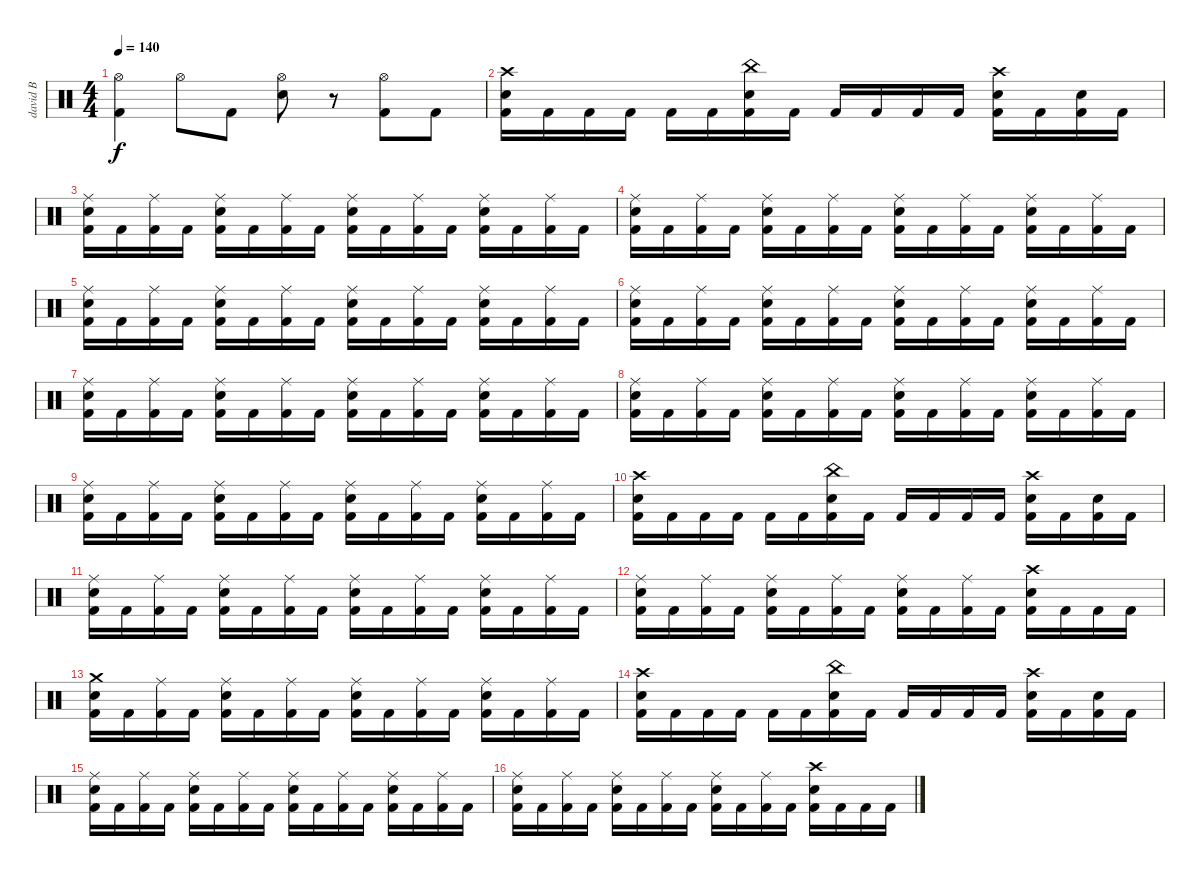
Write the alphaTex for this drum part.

\track ("david B" "david B") {instrument percussion}
\staff {score}
\articulation defaults
\ts (4 4)
\tempo 140
\clef neutral
\ks c
("Hi-Hat (open)" "Kick (hit) 2").4{dy f} "Hi-Hat (open)".8 "Kick (hit) 2".8 ("Hi-Hat (open)" "Electric Snare (hit)").8 r.8 ("Hi-Hat (open)" "Kick (hit) 2").8 "Kick (hit) 2".8 |
("Crash high (hit)" "Electric Snare (hit)" "Kick (hit) 2").16 "Kick (hit) 2".16 "Kick (hit) 2".16 "Kick (hit) 2".16 "Kick (hit) 2".16 "Kick (hit) 2".16 ("China (hit)" "Electric Snare (hit)" "Kick (hit) 2").16 "Kick (hit) 2".16 "Kick (hit) 2".16 "Kick (hit) 2".16 "Kick (hit) 2".16 "Kick (hit) 2".16 ("Crash high (hit)" "Electric Snare (hit)" "Kick (hit) 2").16 "Kick (hit) 2".16 ("Electric Snare (hit)" "Kick (hit) 2").16 "Kick (hit) 2".16 |
("Ride (middle)" "Electric Snare (hit)" "Kick (hit) 2").16 "Kick (hit) 2".16 ("Ride (middle)" "Kick (hit) 2").16 "Kick (hit) 2".16 ("Ride (middle)" "Electric Snare (hit)" "Kick (hit) 2").16 "Kick (hit) 2".16 ("Ride (middle)" "Kick (hit) 2").16 "Kick (hit) 2".16 ("Ride (middle)" "Electric Snare (hit)" "Kick (hit) 2").16 "Kick (hit) 2".16 ("Ride (middle)" "Kick (hit) 2").16 "Kick (hit) 2".16 ("Ride (middle)" "Electric Snare (hit)" "Kick (hit) 2").16 "Kick (hit) 2".16 ("Ride (middle)" "Kick (hit) 2").16 "Kick (hit) 2".16 |
("Ride (middle)" "Electric Snare (hit)" "Kick (hit) 2").16 "Kick (hit) 2".16 ("Ride (middle)" "Kick (hit) 2").16 "Kick (hit) 2".16 ("Ride (middle)" "Electric Snare (hit)" "Kick (hit) 2").16 "Kick (hit) 2".16 ("Ride (middle)" "Kick (hit) 2").16 "Kick (hit) 2".16 ("Ride (middle)" "Electric Snare (hit)" "Kick (hit) 2").16 "Kick (hit) 2".16 ("Ride (middle)" "Kick (hit) 2").16 "Kick (hit) 2".16 ("Ride (middle)" "Electric Snare (hit)" "Kick (hit) 2").16 "Kick (hit) 2".16 ("Ride (middle)" "Kick (hit) 2").16 "Kick (hit) 2".16 |
("Ride (middle)" "Electric Snare (hit)" "Kick (hit) 2").16 "Kick (hit) 2".16 ("Ride (middle)" "Kick (hit) 2").16 "Kick (hit) 2".16 ("Ride (middle)" "Electric Snare (hit)" "Kick (hit) 2").16 "Kick (hit) 2".16 ("Ride (middle)" "Kick (hit) 2").16 "Kick (hit) 2".16 ("Ride (middle)" "Electric Snare (hit)" "Kick (hit) 2").16 "Kick (hit) 2".16 ("Ride (middle)" "Kick (hit) 2").16 "Kick (hit) 2".16 ("Ride (middle)" "Electric Snare (hit)" "Kick (hit) 2").16 "Kick (hit) 2".16 ("Ride (middle)" "Kick (hit) 2").16 "Kick (hit) 2".16 |
("Ride (middle)" "Electric Snare (hit)" "Kick (hit) 2").16 "Kick (hit) 2".16 ("Ride (middle)" "Kick (hit) 2").16 "Kick (hit) 2".16 ("Ride (middle)" "Electric Snare (hit)" "Kick (hit) 2").16 "Kick (hit) 2".16 ("Ride (middle)" "Kick (hit) 2").16 "Kick (hit) 2".16 ("Ride (middle)" "Electric Snare (hit)" "Kick (hit) 2").16 "Kick (hit) 2".16 ("Ride (middle)" "Kick (hit) 2").16 "Kick (hit) 2".16 ("Ride (middle)" "Electric Snare (hit)" "Kick (hit) 2").16 "Kick (hit) 2".16 ("Ride (middle)" "Kick (hit) 2").16 "Kick (hit) 2".16 |
("Ride (middle)" "Electric Snare (hit)" "Kick (hit) 2").16 "Kick (hit) 2".16 ("Ride (middle)" "Kick (hit) 2").16 "Kick (hit) 2".16 ("Ride (middle)" "Electric Snare (hit)" "Kick (hit) 2").16 "Kick (hit) 2".16 ("Ride (middle)" "Kick (hit) 2").16 "Kick (hit) 2".16 ("Ride (middle)" "Electric Snare (hit)" "Kick (hit) 2").16 "Kick (hit) 2".16 ("Ride (middle)" "Kick (hit) 2").16 "Kick (hit) 2".16 ("Ride (middle)" "Electric Snare (hit)" "Kick (hit) 2").16 "Kick (hit) 2".16 ("Ride (middle)" "Kick (hit) 2").16 "Kick (hit) 2".16 |
("Ride (middle)" "Electric Snare (hit)" "Kick (hit) 2").16 "Kick (hit) 2".16 ("Ride (middle)" "Kick (hit) 2").16 "Kick (hit) 2".16 ("Ride (middle)" "Electric Snare (hit)" "Kick (hit) 2").16 "Kick (hit) 2".16 ("Ride (middle)" "Kick (hit) 2").16 "Kick (hit) 2".16 ("Ride (middle)" "Electric Snare (hit)" "Kick (hit) 2").16 "Kick (hit) 2".16 ("Ride (middle)" "Kick (hit) 2").16 "Kick (hit) 2".16 ("Ride (middle)" "Electric Snare (hit)" "Kick (hit) 2").16 "Kick (hit) 2".16 ("Ride (middle)" "Kick (hit) 2").16 "Kick (hit) 2".16 |
("Ride (middle)" "Electric Snare (hit)" "Kick (hit) 2").16 "Kick (hit) 2".16 ("Ride (middle)" "Kick (hit) 2").16 "Kick (hit) 2".16 ("Ride (middle)" "Electric Snare (hit)" "Kick (hit) 2").16 "Kick (hit) 2".16 ("Ride (middle)" "Kick (hit) 2").16 "Kick (hit) 2".16 ("Ride (middle)" "Electric Snare (hit)" "Kick (hit) 2").16 "Kick (hit) 2".16 ("Ride (middle)" "Kick (hit) 2").16 "Kick (hit) 2".16 ("Ride (middle)" "Electric Snare (hit)" "Kick (hit) 2").16 "Kick (hit) 2".16 ("Ride (middle)" "Kick (hit) 2").16 "Kick (hit) 2".16 |
("Crash high (hit)" "Electric Snare (hit)" "Kick (hit) 2").16 "Kick (hit) 2".16 "Kick (hit) 2".16 "Kick (hit) 2".16 "Kick (hit) 2".16 "Kick (hit) 2".16 ("China (hit)" "Electric Snare (hit)" "Kick (hit) 2").16 "Kick (hit) 2".16 "Kick (hit) 2".16 "Kick (hit) 2".16 "Kick (hit) 2".16 "Kick (hit) 2".16 ("Crash high (hit)" "Electric Snare (hit)" "Kick (hit) 2").16 "Kick (hit) 2".16 ("Electric Snare (hit)" "Kick (hit) 2").16 "Kick (hit) 2".16 |
("Ride (middle)" "Electric Snare (hit)" "Kick (hit) 2").16 "Kick (hit) 2".16 ("Ride (middle)" "Kick (hit) 2").16 "Kick (hit) 2".16 ("Ride (middle)" "Electric Snare (hit)" "Kick (hit) 2").16 "Kick (hit) 2".16 ("Ride (middle)" "Kick (hit) 2").16 "Kick (hit) 2".16 ("Ride (middle)" "Electric Snare (hit)" "Kick (hit) 2").16 "Kick (hit) 2".16 ("Ride (middle)" "Kick (hit) 2").16 "Kick (hit) 2".16 ("Ride (middle)" "Electric Snare (hit)" "Kick (hit) 2").16 "Kick (hit) 2".16 ("Ride (middle)" "Kick (hit) 2").16 "Kick (hit) 2".16 |
("Ride (middle)" "Electric Snare (hit)" "Kick (hit) 2").16 "Kick (hit) 2".16 ("Ride (middle)" "Kick (hit) 2").16 "Kick (hit) 2".16 ("Ride (middle)" "Electric Snare (hit)" "Kick (hit) 2").16 "Kick (hit) 2".16 ("Ride (middle)" "Kick (hit) 2").16 "Kick (hit) 2".16 ("Ride (middle)" "Electric Snare (hit)" "Kick (hit) 2").16 "Kick (hit) 2".16 ("Ride (middle)" "Kick (hit) 2").16 "Kick (hit) 2".16 ("Crash high (hit)" "Electric Snare (hit)" "Kick (hit) 2").16 "Kick (hit) 2".16 "Kick (hit) 2".16 "Kick (hit) 2".16 |
("Crash medium (hit)" "Electric Snare (hit)" "Kick (hit) 2").16 "Kick (hit) 2".16 ("Ride (middle)" "Kick (hit) 2").16 "Kick (hit) 2".16 ("Ride (middle)" "Electric Snare (hit)" "Kick (hit) 2").16 "Kick (hit) 2".16 ("Ride (middle)" "Kick (hit) 2").16 "Kick (hit) 2".16 ("Ride (middle)" "Electric Snare (hit)" "Kick (hit) 2").16 "Kick (hit) 2".16 ("Ride (middle)" "Kick (hit) 2").16 "Kick (hit) 2".16 ("Ride (middle)" "Electric Snare (hit)" "Kick (hit) 2").16 "Kick (hit) 2".16 ("Ride (middle)" "Kick (hit) 2").16 "Kick (hit) 2".16 |
("Crash high (hit)" "Electric Snare (hit)" "Kick (hit) 2").16 "Kick (hit) 2".16 "Kick (hit) 2".16 "Kick (hit) 2".16 "Kick (hit) 2".16 "Kick (hit) 2".16 ("China (hit)" "Electric Snare (hit)" "Kick (hit) 2").16 "Kick (hit) 2".16 "Kick (hit) 2".16 "Kick (hit) 2".16 "Kick (hit) 2".16 "Kick (hit) 2".16 ("Crash high (hit)" "Electric Snare (hit)" "Kick (hit) 2").16 "Kick (hit) 2".16 ("Electric Snare (hit)" "Kick (hit) 2").16 "Kick (hit) 2".16 |
("Ride (middle)" "Electric Snare (hit)" "Kick (hit) 2").16 "Kick (hit) 2".16 ("Ride (middle)" "Kick (hit) 2").16 "Kick (hit) 2".16 ("Ride (middle)" "Electric Snare (hit)" "Kick (hit) 2").16 "Kick (hit) 2".16 ("Ride (middle)" "Kick (hit) 2").16 "Kick (hit) 2".16 ("Ride (middle)" "Electric Snare (hit)" "Kick (hit) 2").16 "Kick (hit) 2".16 ("Ride (middle)" "Kick (hit) 2").16 "Kick (hit) 2".16 ("Ride (middle)" "Electric Snare (hit)" "Kick (hit) 2").16 "Kick (hit) 2".16 ("Ride (middle)" "Kick (hit) 2").16 "Kick (hit) 2".16 |
("Ride (middle)" "Electric Snare (hit)" "Kick (hit) 2").16 "Kick (hit) 2".16 ("Ride (middle)" "Kick (hit) 2").16 "Kick (hit) 2".16 ("Ride (middle)" "Electric Snare (hit)" "Kick (hit) 2").16 "Kick (hit) 2".16 ("Ride (middle)" "Kick (hit) 2").16 "Kick (hit) 2".16 ("Ride (middle)" "Electric Snare (hit)" "Kick (hit) 2").16 "Kick (hit) 2".16 ("Ride (middle)" "Kick (hit) 2").16 "Kick (hit) 2".16 ("Crash high (hit)" "Electric Snare (hit)" "Kick (hit) 2").16 "Kick (hit) 2".16 "Kick (hit) 2".16 "Kick (hit) 2".16
